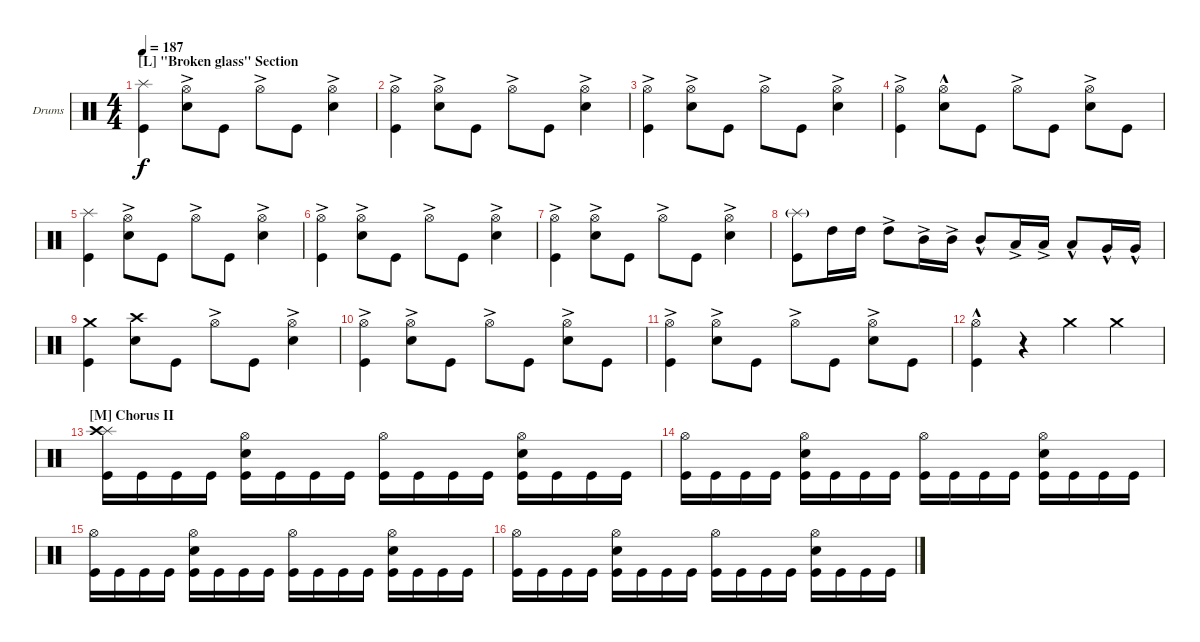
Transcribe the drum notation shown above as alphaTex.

\defaultSystemsLayout 4
\bracketExtendMode groupsimilarinstruments
\firstSystemTrackNameOrientation horizontal
\otherSystemsTrackNameOrientation horizontal
\track ("Drumkit" "Drums") {instrument percussion}
\staff {score}
\articulation defaults
\ts (4 4)
\section ("L" "\"Broken glass\" Section")
\tempo 187
\clef neutral
\ks c
("Kick (hit)" "Splash (hit)").4{dy f} ("Snare (hit) 2" "Hi-Hat (open)"{ac}).8 "Kick (hit)".8 "Hi-Hat (open)"{ac}.8 "Kick (hit)".8 ("Snare (hit) 2" "Hi-Hat (open)"{ac}).4 |
("Kick (hit)" "Hi-Hat (open)"{ac}).4 ("Snare (hit) 2" "Hi-Hat (open)"{ac}).8 "Kick (hit)".8 "Hi-Hat (open)"{ac}.8 "Kick (hit)".8 ("Snare (hit) 2" "Hi-Hat (open)"{ac}).4 |
("Kick (hit)" "Hi-Hat (open)"{ac}).4 ("Snare (hit) 2" "Hi-Hat (open)"{ac}).8 "Kick (hit)".8 "Hi-Hat (open)"{ac}.8 "Kick (hit)".8 ("Snare (hit) 2" "Hi-Hat (open)"{ac}).4 |
("Kick (hit)" "Hi-Hat (open)"{ac}).4 ("Snare (hit) 2" "Hi-Hat (open)"{hac}).8 "Kick (hit)".8 "Hi-Hat (open)"{ac}.8 "Kick (hit)".8 ("Snare (hit) 2" "Hi-Hat (open)"{ac}).8 "Kick (hit)".8 |
("Kick (hit)" "Splash (hit)").4 ("Snare (hit) 2" "Hi-Hat (open)"{ac}).8 "Kick (hit)".8 "Hi-Hat (open)"{ac}.8 "Kick (hit)".8 ("Snare (hit) 2" "Hi-Hat (open)"{ac}).4 |
("Kick (hit)" "Hi-Hat (open)"{ac}).4 ("Snare (hit) 2" "Hi-Hat (open)"{ac}).8 "Kick (hit)".8 "Hi-Hat (open)"{ac}.8 "Kick (hit)".8 ("Snare (hit) 2" "Hi-Hat (open)"{ac}).4 |
("Kick (hit)" "Hi-Hat (open)"{ac}).4 ("Snare (hit) 2" "Hi-Hat (open)"{ac}).8 "Kick (hit)".8 "Hi-Hat (open)"{ac}.8 "Kick (hit)".8 ("Snare (hit) 2" "Hi-Hat (open)"{ac}).4 |
("Kick (hit)" "Splash (hit)"{g}).8 "High Tom (hit)".16 "High Tom (hit)".16 "High Tom (hit)"{ac}.8 "Mid Tom (hit)"{ac}.16 "Mid Tom (hit)"{ac}.16 "Mid Tom (hit)"{hac}.8 "Low Tom (hit)"{ac}.16 "Low Tom (hit)"{ac}.16 "Low Tom (hit)"{hac}.8 "Very Low Tom (hit)"{hac}.16 "Very Low Tom (hit)"{hac}.16 |
("Kick (hit)" "Crash medium (hit)").4 ("Snare (hit) 2" "Crash high (hit)").8 "Kick (hit)".8 "Hi-Hat (open)"{ac}.8 "Kick (hit)".8 ("Snare (hit) 2" "Hi-Hat (open)"{ac}).4 |
("Kick (hit)" "Hi-Hat (open)"{ac}).4 ("Snare (hit) 2" "Hi-Hat (open)"{ac}).8 "Kick (hit)".8 "Hi-Hat (open)"{ac}.8 "Kick (hit)".8 ("Snare (hit) 2" "Hi-Hat (open)"{ac}).8 "Kick (hit)".8 |
("Kick (hit)" "Hi-Hat (open)"{ac}).4 ("Snare (hit) 2" "Hi-Hat (open)"{ac}).8 "Kick (hit)".8 "Hi-Hat (open)"{ac}.8 "Kick (hit)".8 ("Snare (hit) 2" "Hi-Hat (open)"{ac}).8 "Kick (hit)".8 |
("Kick (hit)" "Hi-Hat (open)"{hac}).4 r.4 "Crash medium (hit)".4 "Crash medium (hit)".4 |
\section ("M" "Chorus II")
("Splash (hit)" "Kick (hit)" "Crash high (hit)").16 "Kick (hit)".16 "Kick (hit)".16 "Kick (hit)".16 ("Snare (hit) 2" "Hi-Hat (open)" "Kick (hit)").16 "Kick (hit)".16 "Kick (hit)".16 "Kick (hit)".16 ("Kick (hit)" "Hi-Hat (open)").16 "Kick (hit)".16 "Kick (hit)".16 "Kick (hit)".16 ("Snare (hit) 2" "Hi-Hat (open)" "Kick (hit)").16 "Kick (hit)".16 "Kick (hit)".16 "Kick (hit)".16 |
("Kick (hit)" "Hi-Hat (open)").16 "Kick (hit)".16 "Kick (hit)".16 "Kick (hit)".16 ("Snare (hit) 2" "Hi-Hat (open)" "Kick (hit)").16 "Kick (hit)".16 "Kick (hit)".16 "Kick (hit)".16 ("Kick (hit)" "Hi-Hat (open)").16 "Kick (hit)".16 "Kick (hit)".16 "Kick (hit)".16 ("Snare (hit) 2" "Hi-Hat (open)" "Kick (hit)").16 "Kick (hit)".16 "Kick (hit)".16 "Kick (hit)".16 |
("Kick (hit)" "Hi-Hat (open)").16 "Kick (hit)".16 "Kick (hit)".16 "Kick (hit)".16 ("Snare (hit) 2" "Hi-Hat (open)" "Kick (hit)").16 "Kick (hit)".16 "Kick (hit)".16 "Kick (hit)".16 ("Kick (hit)" "Hi-Hat (open)").16 "Kick (hit)".16 "Kick (hit)".16 "Kick (hit)".16 ("Snare (hit) 2" "Hi-Hat (open)" "Kick (hit)").16 "Kick (hit)".16 "Kick (hit)".16 "Kick (hit)".16 |
("Kick (hit)" "Hi-Hat (open)").16 "Kick (hit)".16 "Kick (hit)".16 "Kick (hit)".16 ("Snare (hit) 2" "Hi-Hat (open)" "Kick (hit)").16 "Kick (hit)".16 "Kick (hit)".16 "Kick (hit)".16 ("Kick (hit)" "Hi-Hat (open)").16 "Kick (hit)".16 "Kick (hit)".16 "Kick (hit)".16 ("Snare (hit) 2" "Hi-Hat (open)" "Kick (hit)").16 "Kick (hit)".16 "Kick (hit)".16 "Kick (hit)".16
